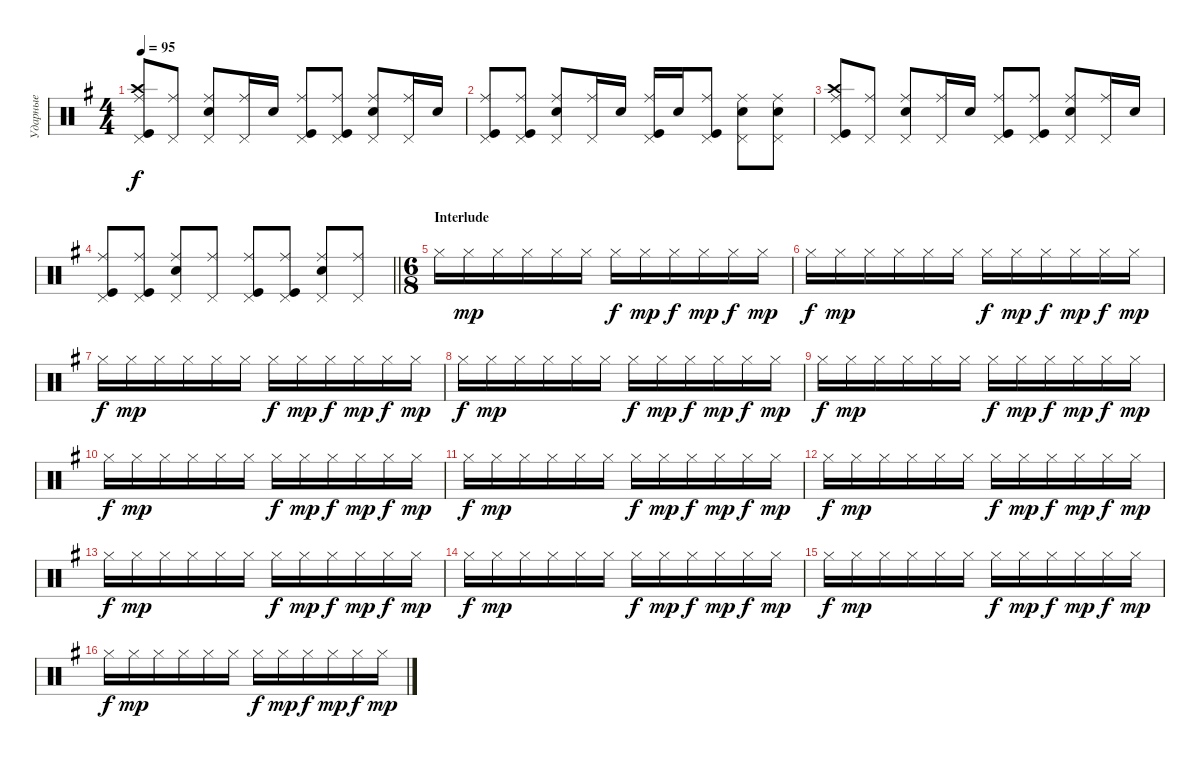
\track ("Ударные" "Ударные") {instrument percussion}
\staff {score}
\articulation defaults
\ts (4 4)
\tempo 95
\clef neutral
\ks eminor
("Kick (hit)" "Crash high (hit)" "Ride (middle)" "Pedal Hi-Hat (hit)").8{dy f} ("Pedal Hi-Hat (hit)" "Ride (middle)").8 ("Snare (hit) 2" "Pedal Hi-Hat (hit)" "Ride (middle)").8 ("Pedal Hi-Hat (hit)" "Ride (middle)").16 "Snare (hit) 2".16 ("Kick (hit)" "Pedal Hi-Hat (hit)" "Ride (middle)").8 ("Kick (hit)" "Pedal Hi-Hat (hit)" "Ride (middle)").8 ("Snare (hit) 2" "Pedal Hi-Hat (hit)" "Ride (middle)").8 ("Pedal Hi-Hat (hit)" "Ride (middle)").16 "Snare (hit) 2".16 |
("Kick (hit)" "Ride (middle)" "Pedal Hi-Hat (hit)").8 ("Kick (hit)" "Ride (middle)" "Pedal Hi-Hat (hit)").8 ("Snare (hit) 2" "Pedal Hi-Hat (hit)" "Ride (middle)").8 ("Pedal Hi-Hat (hit)" "Ride (middle)").16 "Snare (hit) 2".16 ("Kick (hit)" "Pedal Hi-Hat (hit)" "Ride (middle)").16 "Snare (hit) 2".16 ("Kick (hit)" "Pedal Hi-Hat (hit)" "Ride (middle)").8 ("Snare (hit) 2" "Pedal Hi-Hat (hit)" "Ride (middle)").8 ("Snare (hit) 2" "Ride (middle)" "Pedal Hi-Hat (hit)").8 |
("Kick (hit)" "Crash high (hit)" "Ride (middle)" "Pedal Hi-Hat (hit)").8 ("Pedal Hi-Hat (hit)" "Ride (middle)").8 ("Snare (hit) 2" "Pedal Hi-Hat (hit)" "Ride (middle)").8 ("Pedal Hi-Hat (hit)" "Ride (middle)").16 "Snare (hit) 2".16 ("Kick (hit)" "Pedal Hi-Hat (hit)" "Ride (middle)").8 ("Kick (hit)" "Pedal Hi-Hat (hit)" "Ride (middle)").8 ("Snare (hit) 2" "Pedal Hi-Hat (hit)" "Ride (middle)").8 ("Pedal Hi-Hat (hit)" "Ride (middle)").16 "Snare (hit) 2".16 |
\barLineRight lightlight
("Kick (hit)" "Ride (middle)" "Pedal Hi-Hat (hit)").8 ("Kick (hit)" "Ride (middle)" "Pedal Hi-Hat (hit)").8 ("Snare (hit) 2" "Pedal Hi-Hat (hit)" "Ride (middle)").8 ("Pedal Hi-Hat (hit)" "Ride (middle)").8 ("Kick (hit)" "Pedal Hi-Hat (hit)" "Ride (middle)").8 ("Kick (hit)" "Pedal Hi-Hat (hit)" "Ride (middle)").8 ("Snare (hit) 2" "Pedal Hi-Hat (hit)" "Ride (middle)").8 ("Pedal Hi-Hat (hit)" "Ride (middle)").8 |
\ts (6 8)
\section ("" "Interlude")
"Hi-Hat (closed)".16 "Hi-Hat (closed)".16{dy mp} "Hi-Hat (closed)".16 "Hi-Hat (closed)".16 "Hi-Hat (closed)".16 "Hi-Hat (closed)".16 "Hi-Hat (closed)".16{dy f} "Hi-Hat (closed)".16{dy mp} "Hi-Hat (closed)".16{dy f} "Hi-Hat (closed)".16{dy mp} "Hi-Hat (closed)".16{dy f} "Hi-Hat (closed)".16{dy mp} |
"Hi-Hat (closed)".16{dy f} "Hi-Hat (closed)".16{dy mp} "Hi-Hat (closed)".16 "Hi-Hat (closed)".16 "Hi-Hat (closed)".16 "Hi-Hat (closed)".16 "Hi-Hat (closed)".16{dy f} "Hi-Hat (closed)".16{dy mp} "Hi-Hat (closed)".16{dy f} "Hi-Hat (closed)".16{dy mp} "Hi-Hat (closed)".16{dy f} "Hi-Hat (closed)".16{dy mp} |
"Hi-Hat (closed)".16{dy f} "Hi-Hat (closed)".16{dy mp} "Hi-Hat (closed)".16 "Hi-Hat (closed)".16 "Hi-Hat (closed)".16 "Hi-Hat (closed)".16 "Hi-Hat (closed)".16{dy f} "Hi-Hat (closed)".16{dy mp} "Hi-Hat (closed)".16{dy f} "Hi-Hat (closed)".16{dy mp} "Hi-Hat (closed)".16{dy f} "Hi-Hat (closed)".16{dy mp} |
"Hi-Hat (closed)".16{dy f} "Hi-Hat (closed)".16{dy mp} "Hi-Hat (closed)".16 "Hi-Hat (closed)".16 "Hi-Hat (closed)".16 "Hi-Hat (closed)".16 "Hi-Hat (closed)".16{dy f} "Hi-Hat (closed)".16{dy mp} "Hi-Hat (closed)".16{dy f} "Hi-Hat (closed)".16{dy mp} "Hi-Hat (closed)".16{dy f} "Hi-Hat (closed)".16{dy mp} |
"Hi-Hat (closed)".16{dy f} "Hi-Hat (closed)".16{dy mp} "Hi-Hat (closed)".16 "Hi-Hat (closed)".16 "Hi-Hat (closed)".16 "Hi-Hat (closed)".16 "Hi-Hat (closed)".16{dy f} "Hi-Hat (closed)".16{dy mp} "Hi-Hat (closed)".16{dy f} "Hi-Hat (closed)".16{dy mp} "Hi-Hat (closed)".16{dy f} "Hi-Hat (closed)".16{dy mp} |
"Hi-Hat (closed)".16{dy f} "Hi-Hat (closed)".16{dy mp} "Hi-Hat (closed)".16 "Hi-Hat (closed)".16 "Hi-Hat (closed)".16 "Hi-Hat (closed)".16 "Hi-Hat (closed)".16{dy f} "Hi-Hat (closed)".16{dy mp} "Hi-Hat (closed)".16{dy f} "Hi-Hat (closed)".16{dy mp} "Hi-Hat (closed)".16{dy f} "Hi-Hat (closed)".16{dy mp} |
"Hi-Hat (closed)".16{dy f} "Hi-Hat (closed)".16{dy mp} "Hi-Hat (closed)".16 "Hi-Hat (closed)".16 "Hi-Hat (closed)".16 "Hi-Hat (closed)".16 "Hi-Hat (closed)".16{dy f} "Hi-Hat (closed)".16{dy mp} "Hi-Hat (closed)".16{dy f} "Hi-Hat (closed)".16{dy mp} "Hi-Hat (closed)".16{dy f} "Hi-Hat (closed)".16{dy mp} |
"Hi-Hat (closed)".16{dy f} "Hi-Hat (closed)".16{dy mp} "Hi-Hat (closed)".16 "Hi-Hat (closed)".16 "Hi-Hat (closed)".16 "Hi-Hat (closed)".16 "Hi-Hat (closed)".16{dy f} "Hi-Hat (closed)".16{dy mp} "Hi-Hat (closed)".16{dy f} "Hi-Hat (closed)".16{dy mp} "Hi-Hat (closed)".16{dy f} "Hi-Hat (closed)".16{dy mp} |
"Hi-Hat (closed)".16{dy f} "Hi-Hat (closed)".16{dy mp} "Hi-Hat (closed)".16 "Hi-Hat (closed)".16 "Hi-Hat (closed)".16 "Hi-Hat (closed)".16 "Hi-Hat (closed)".16{dy f} "Hi-Hat (closed)".16{dy mp} "Hi-Hat (closed)".16{dy f} "Hi-Hat (closed)".16{dy mp} "Hi-Hat (closed)".16{dy f} "Hi-Hat (closed)".16{dy mp} |
"Hi-Hat (closed)".16{dy f} "Hi-Hat (closed)".16{dy mp} "Hi-Hat (closed)".16 "Hi-Hat (closed)".16 "Hi-Hat (closed)".16 "Hi-Hat (closed)".16 "Hi-Hat (closed)".16{dy f} "Hi-Hat (closed)".16{dy mp} "Hi-Hat (closed)".16{dy f} "Hi-Hat (closed)".16{dy mp} "Hi-Hat (closed)".16{dy f} "Hi-Hat (closed)".16{dy mp} |
"Hi-Hat (closed)".16{dy f} "Hi-Hat (closed)".16{dy mp} "Hi-Hat (closed)".16 "Hi-Hat (closed)".16 "Hi-Hat (closed)".16 "Hi-Hat (closed)".16 "Hi-Hat (closed)".16{dy f} "Hi-Hat (closed)".16{dy mp} "Hi-Hat (closed)".16{dy f} "Hi-Hat (closed)".16{dy mp} "Hi-Hat (closed)".16{dy f} "Hi-Hat (closed)".16{dy mp} |
"Hi-Hat (closed)".16{dy f} "Hi-Hat (closed)".16{dy mp} "Hi-Hat (closed)".16 "Hi-Hat (closed)".16 "Hi-Hat (closed)".16 "Hi-Hat (closed)".16 "Hi-Hat (closed)".16{dy f} "Hi-Hat (closed)".16{dy mp} "Hi-Hat (closed)".16{dy f} "Hi-Hat (closed)".16{dy mp} "Hi-Hat (closed)".16{dy f} "Hi-Hat (closed)".16{dy mp}
